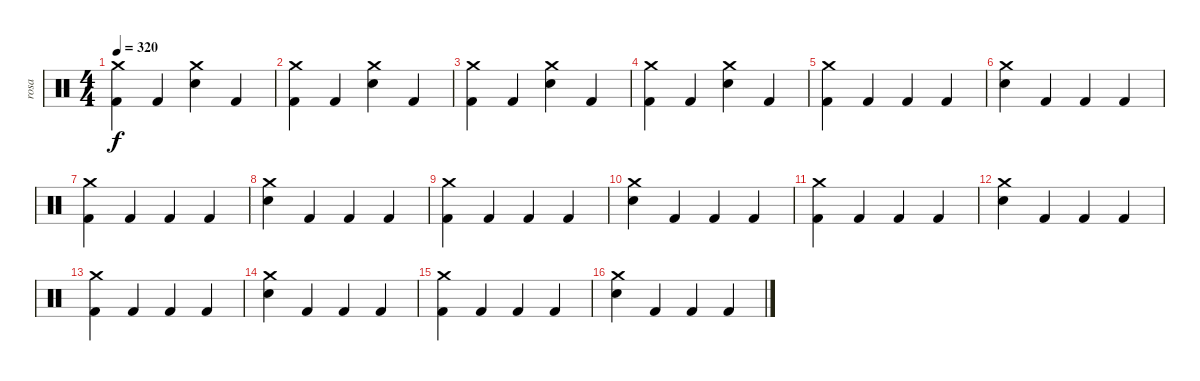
\track ("rosa" "rosa") {instrument percussion}
\staff {score}
\articulation defaults
\ts (4 4)
\tempo 320
\clef neutral
\ks c
("Crash medium (hit)" "Kick (hit) 2").4{dy f} "Kick (hit) 2".4 ("Crash medium (hit)" "Electric Snare (hit)").4 "Kick (hit) 2".4 |
("Crash medium (hit)" "Kick (hit) 2").4 "Kick (hit) 2".4 ("Crash medium (hit)" "Electric Snare (hit)").4 "Kick (hit) 2".4 |
("Crash medium (hit)" "Kick (hit) 2").4 "Kick (hit) 2".4 ("Crash medium (hit)" "Electric Snare (hit)").4 "Kick (hit) 2".4 |
("Crash medium (hit)" "Kick (hit) 2").4 "Kick (hit) 2".4 ("Crash medium (hit)" "Electric Snare (hit)").4 "Kick (hit) 2".4 |
("Crash medium (hit)" "Kick (hit) 2").4 "Kick (hit) 2".4 "Kick (hit) 2".4 "Kick (hit) 2".4 |
("Crash medium (hit)" "Electric Snare (hit)").4 "Kick (hit) 2".4 "Kick (hit) 2".4 "Kick (hit) 2".4 |
("Crash medium (hit)" "Kick (hit) 2").4 "Kick (hit) 2".4 "Kick (hit) 2".4 "Kick (hit) 2".4 |
("Crash medium (hit)" "Electric Snare (hit)").4 "Kick (hit) 2".4 "Kick (hit) 2".4 "Kick (hit) 2".4 |
("Crash medium (hit)" "Kick (hit) 2").4 "Kick (hit) 2".4 "Kick (hit) 2".4 "Kick (hit) 2".4 |
("Crash medium (hit)" "Electric Snare (hit)").4 "Kick (hit) 2".4 "Kick (hit) 2".4 "Kick (hit) 2".4 |
("Crash medium (hit)" "Kick (hit) 2").4 "Kick (hit) 2".4 "Kick (hit) 2".4 "Kick (hit) 2".4 |
("Crash medium (hit)" "Electric Snare (hit)").4 "Kick (hit) 2".4 "Kick (hit) 2".4 "Kick (hit) 2".4 |
("Crash medium (hit)" "Kick (hit) 2").4 "Kick (hit) 2".4 "Kick (hit) 2".4 "Kick (hit) 2".4 |
("Crash medium (hit)" "Electric Snare (hit)").4 "Kick (hit) 2".4 "Kick (hit) 2".4 "Kick (hit) 2".4 |
("Crash medium (hit)" "Kick (hit) 2").4 "Kick (hit) 2".4 "Kick (hit) 2".4 "Kick (hit) 2".4 |
("Crash medium (hit)" "Electric Snare (hit)").4 "Kick (hit) 2".4 "Kick (hit) 2".4 "Kick (hit) 2".4
